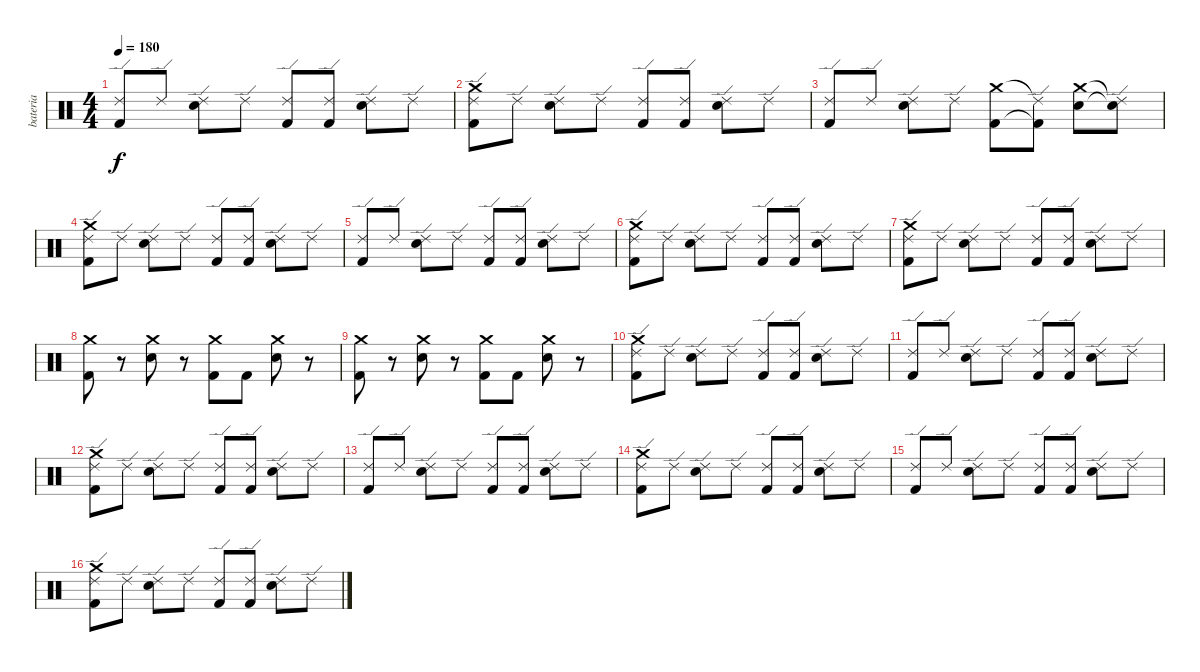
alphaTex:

\track ("bateria" "bateria") {instrument percussion}
\staff {score}
\articulation defaults
\ts (4 4)
\tempo 180
\clef neutral
\ks c
("Ride (edge) 2" "Kick (hit) 2").8{dy f} "Ride (edge) 2".8 ("Ride (edge) 2" "Electric Snare (hit)").8 "Ride (edge) 2".8 ("Ride (edge) 2" "Kick (hit) 2").8 ("Ride (edge) 2" "Kick (hit) 2").8 ("Ride (edge) 2" "Electric Snare (hit)").8 "Ride (edge) 2".8 |
("Ride (edge) 2" "Kick (hit) 2" "Crash medium (hit)").8 "Ride (edge) 2".8 ("Ride (edge) 2" "Electric Snare (hit)").8 "Ride (edge) 2".8 ("Ride (edge) 2" "Kick (hit) 2").8 ("Ride (edge) 2" "Kick (hit) 2").8 ("Ride (edge) 2" "Electric Snare (hit)").8 "Ride (edge) 2".8 |
("Ride (edge) 2" "Kick (hit) 2").8 "Ride (edge) 2".8 ("Ride (edge) 2" "Electric Snare (hit)").8 "Ride (edge) 2".8 ("Crash medium (hit)" "Kick (hit) 2").8 ("Ride (edge) 2"{t} "Kick (hit) 2"{t}).8 ("Crash medium (hit)" "Electric Snare (hit)").8 ("Ride (edge) 2"{t} "Snare (hit)"{t}).8 |
("Ride (edge) 2" "Kick (hit) 2" "Crash medium (hit)").8 "Ride (edge) 2".8 ("Ride (edge) 2" "Electric Snare (hit)").8 "Ride (edge) 2".8 ("Ride (edge) 2" "Kick (hit) 2").8 ("Ride (edge) 2" "Kick (hit) 2").8 ("Ride (edge) 2" "Electric Snare (hit)").8 "Ride (edge) 2".8 |
("Ride (edge) 2" "Kick (hit) 2").8 "Ride (edge) 2".8 ("Ride (edge) 2" "Electric Snare (hit)").8 "Ride (edge) 2".8 ("Ride (edge) 2" "Kick (hit) 2").8 ("Ride (edge) 2" "Kick (hit) 2").8 ("Ride (edge) 2" "Electric Snare (hit)").8 "Ride (edge) 2".8 |
("Ride (edge) 2" "Kick (hit) 2" "Crash medium (hit)").8 "Ride (edge) 2".8 ("Ride (edge) 2" "Electric Snare (hit)").8 "Ride (edge) 2".8 ("Ride (edge) 2" "Kick (hit) 2").8 ("Ride (edge) 2" "Kick (hit) 2").8 ("Ride (edge) 2" "Electric Snare (hit)").8 "Ride (edge) 2".8 |
("Ride (edge) 2" "Kick (hit) 2" "Crash medium (hit)").8 "Ride (edge) 2".8 ("Ride (edge) 2" "Electric Snare (hit)").8 "Ride (edge) 2".8 ("Ride (edge) 2" "Kick (hit) 2").8 ("Ride (edge) 2" "Kick (hit) 2").8 ("Ride (edge) 2" "Electric Snare (hit)").8 "Ride (edge) 2".8 |
("Crash medium (hit)" "Kick (hit) 2").8 r.8 ("Crash medium (hit)" "Electric Snare (hit)").8 r.8 ("Crash medium (hit)" "Kick (hit) 2").8 "Kick (hit) 2".8 ("Crash medium (hit)" "Electric Snare (hit)").8 r.8 |
("Crash medium (hit)" "Kick (hit) 2").8 r.8 ("Crash medium (hit)" "Electric Snare (hit)").8 r.8 ("Crash medium (hit)" "Kick (hit) 2").8 "Kick (hit) 2".8 ("Crash medium (hit)" "Electric Snare (hit)").8 r.8 |
("Ride (edge) 2" "Kick (hit) 2" "Crash medium (hit)").8 "Ride (edge) 2".8 ("Ride (edge) 2" "Electric Snare (hit)").8 "Ride (edge) 2".8 ("Ride (edge) 2" "Kick (hit) 2").8 ("Ride (edge) 2" "Kick (hit) 2").8 ("Ride (edge) 2" "Electric Snare (hit)").8 "Ride (edge) 2".8 |
("Ride (edge) 2" "Kick (hit) 2").8 "Ride (edge) 2".8 ("Ride (edge) 2" "Electric Snare (hit)").8 "Ride (edge) 2".8 ("Ride (edge) 2" "Kick (hit) 2").8 ("Ride (edge) 2" "Kick (hit) 2").8 ("Ride (edge) 2" "Electric Snare (hit)").8 "Ride (edge) 2".8 |
("Ride (edge) 2" "Kick (hit) 2" "Crash medium (hit)").8 "Ride (edge) 2".8 ("Ride (edge) 2" "Electric Snare (hit)").8 "Ride (edge) 2".8 ("Ride (edge) 2" "Kick (hit) 2").8 ("Ride (edge) 2" "Kick (hit) 2").8 ("Ride (edge) 2" "Electric Snare (hit)").8 "Ride (edge) 2".8 |
("Ride (edge) 2" "Kick (hit) 2").8 "Ride (edge) 2".8 ("Ride (edge) 2" "Electric Snare (hit)").8 "Ride (edge) 2".8 ("Ride (edge) 2" "Kick (hit) 2").8 ("Ride (edge) 2" "Kick (hit) 2").8 ("Ride (edge) 2" "Electric Snare (hit)").8 "Ride (edge) 2".8 |
("Ride (edge) 2" "Kick (hit) 2" "Crash medium (hit)").8 "Ride (edge) 2".8 ("Ride (edge) 2" "Electric Snare (hit)").8 "Ride (edge) 2".8 ("Ride (edge) 2" "Kick (hit) 2").8 ("Ride (edge) 2" "Kick (hit) 2").8 ("Ride (edge) 2" "Electric Snare (hit)").8 "Ride (edge) 2".8 |
("Ride (edge) 2" "Kick (hit) 2").8 "Ride (edge) 2".8 ("Ride (edge) 2" "Electric Snare (hit)").8 "Ride (edge) 2".8 ("Ride (edge) 2" "Kick (hit) 2").8 ("Ride (edge) 2" "Kick (hit) 2").8 ("Ride (edge) 2" "Electric Snare (hit)").8 "Ride (edge) 2".8 |
("Ride (edge) 2" "Kick (hit) 2" "Crash medium (hit)").8 "Ride (edge) 2".8 ("Ride (edge) 2" "Electric Snare (hit)").8 "Ride (edge) 2".8 ("Ride (edge) 2" "Kick (hit) 2").8 ("Ride (edge) 2" "Kick (hit) 2").8 ("Ride (edge) 2" "Electric Snare (hit)").8 "Ride (edge) 2".8
